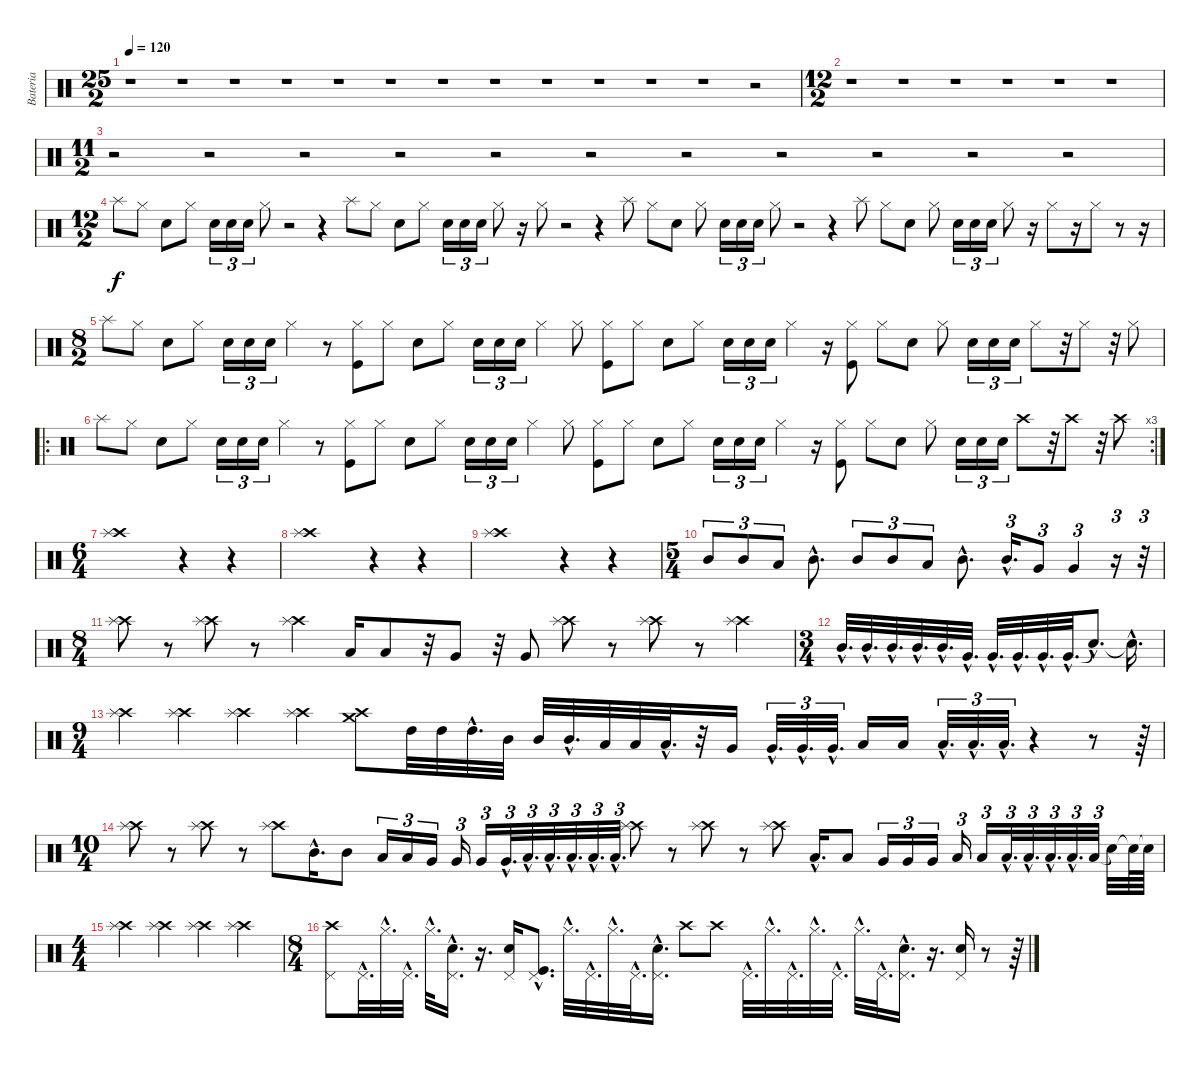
\track ("Bateria" "Bateria") {instrument percussion}
\staff {score}
\articulation defaults
\ts (25 2)
\tempo 120
\clef neutral
\ks c
r.1{dy f} r.1 r.1 r.1 r.1 r.1 r.1 r.1 r.1 r.1 r.1 r.1 r.2 |
\ts (12 2)
r.1 r.1 r.1 r.1 r.1 r.1 |
\ts (11 2)
r.2 r.2 r.2 r.2 r.2 r.2 r.2 r.2 r.2 r.2 r.2 |
\ts (12 2)
"Splash (hit)".8 "Hi-Hat (closed)".8 "Electric Snare (hit)".8 "Hi-Hat (closed)".8 "Electric Snare (hit)".16{tu (3 2)} "Electric Snare (hit)".16{tu (3 2)} "Electric Snare (hit)".16{tu (3 2)} "Hi-Hat (closed)".8 r.2 r.4 "Splash (hit)".8 "Hi-Hat (closed)".8 "Electric Snare (hit)".8 "Hi-Hat (closed)".8 "Electric Snare (hit)".16{tu (3 2)} "Electric Snare (hit)".16{tu (3 2)} "Electric Snare (hit)".16{tu (3 2)} "Hi-Hat (closed)".8 r.16 "Hi-Hat (closed)".8 r.2 r.4 "Splash (hit)".8 "Hi-Hat (closed)".8 "Electric Snare (hit)".8 "Hi-Hat (closed)".8 "Electric Snare (hit)".16{tu (3 2)} "Electric Snare (hit)".16{tu (3 2)} "Electric Snare (hit)".16{tu (3 2)} "Hi-Hat (closed)".8 r.2 r.4 "Splash (hit)".8 "Hi-Hat (closed)".8 "Electric Snare (hit)".8 "Hi-Hat (closed)".8 "Electric Snare (hit)".16{tu (3 2)} "Electric Snare (hit)".16{tu (3 2)} "Electric Snare (hit)".16{tu (3 2)} "Hi-Hat (closed)".8 r.16 "Hi-Hat (closed)".8 r.16 "Hi-Hat (closed)".8 r.8 r.16 |
\ts (8 2)
"Splash (hit)".8 "Hi-Hat (closed)".8 "Electric Snare (hit)".8 "Hi-Hat (closed)".8 "Electric Snare (hit)".16{tu (3 2)} "Electric Snare (hit)".16{tu (3 2)} "Electric Snare (hit)".16{tu (3 2)} "Hi-Hat (closed)".4 r.8 ("Kick (hit)" "Hi-Hat (closed)").8 "Hi-Hat (closed)".8 "Electric Snare (hit)".8 "Hi-Hat (closed)".8 "Electric Snare (hit)".16{tu (3 2)} "Electric Snare (hit)".16{tu (3 2)} "Electric Snare (hit)".16{tu (3 2)} "Hi-Hat (closed)".4 "Hi-Hat (closed)".8 ("Kick (hit)" "Hi-Hat (closed)").8 "Hi-Hat (closed)".8 "Electric Snare (hit)".8 "Hi-Hat (closed)".8 "Electric Snare (hit)".16{tu (3 2)} "Electric Snare (hit)".16{tu (3 2)} "Electric Snare (hit)".16{tu (3 2)} "Hi-Hat (closed)".4 r.16 ("Kick (hit)" "Hi-Hat (closed)").8 "Hi-Hat (closed)".8 "Electric Snare (hit)".8 "Hi-Hat (closed)".8 "Electric Snare (hit)".16{tu (3 2)} "Electric Snare (hit)".16{tu (3 2)} "Electric Snare (hit)".16{tu (3 2)} "Hi-Hat (closed)".8 r.32 "Hi-Hat (closed)".8 r.32 "Hi-Hat (closed)".8 |
\ro
\rc 3 "Splash (hit)".8 "Hi-Hat (closed)".8 "Electric Snare (hit)".8 "Hi-Hat (closed)".8 "Electric Snare (hit)".16{tu (3 2)} "Electric Snare (hit)".16{tu (3 2)} "Electric Snare (hit)".16{tu (3 2)} "Hi-Hat (closed)".4
r.8 ("Kick (hit)" "Hi-Hat (closed)").8 "Hi-Hat (closed)".8 "Electric Snare (hit)".8 "Hi-Hat (closed)".8 "Electric Snare (hit)".16{tu (3 2)} "Electric Snare (hit)".16{tu (3 2)} "Electric Snare (hit)".16{tu (3 2)} "Hi-Hat (closed)".4 "Hi-Hat (closed)".8 ("Kick (hit)" "Hi-Hat (closed)").8 "Hi-Hat (closed)".8 "Electric Snare (hit)".8 "Hi-Hat (closed)".8 "Electric Snare (hit)".16{tu (3 2)} "Electric Snare (hit)".16{tu (3 2)} "Electric Snare (hit)".16{tu (3 2)} "Hi-Hat (closed)".4 r.16 ("Kick (hit)" "Hi-Hat (closed)").8 "Hi-Hat (closed)".8 "Electric Snare (hit)".8 "Hi-Hat (closed)".8 "Electric Snare (hit)".16{tu (3 2)} "Electric Snare (hit)".16{tu (3 2)} "Electric Snare (hit)".16{tu (3 2)} "Crash high (hit)".8 r.32 "Crash high (hit)".8 r.32 "Crash high (hit)".8 |
\ts (6 4)
("Crash high (hit)" "Splash (hit)").1 r.4 r.4 |
("Crash high (hit)" "Splash (hit)").1 r.4 r.4 |
("Crash high (hit)" "Splash (hit)").1 r.4 r.4 |
\ts (5 4)
"Mid Tom (hit)".8{tu (3 2)} "Mid Tom (hit)".8{tu (3 2)} "Low Tom (hit)".8{tu (3 2)} "Mid Tom (hit)"{hac}.8{d} "Mid Tom (hit)".8{tu (3 2)} "Mid Tom (hit)".8{tu (3 2)} "Low Tom (hit)".8{tu (3 2)} "Mid Tom (hit)"{hac}.8{d} "Mid Tom (hit)"{hac}.16{d tu (3 2)} "Very Low Tom (hit)".8{tu (3 2)} "Very Low Tom (hit)".4{tu (3 2)} r.16{tu (3 2)} r.32{tu (3 2)} |
\ts (8 4)
("Crash high (hit)" "Splash (hit)").8 r.8 ("Crash high (hit)" "Splash (hit)").8 r.8 ("Crash high (hit)" "Splash (hit)").4 "Low Tom (hit)".16 "Low Tom (hit)".8 r.32 "Very Low Tom (hit)".8 r.32 "Very Low Tom (hit)".8 ("Crash high (hit)" "Splash (hit)").8 r.8 ("Crash high (hit)" "Splash (hit)").8 r.8 ("Crash high (hit)" "Splash (hit)").4 |
\ts (3 4)
"Mid Tom (hit)"{hac}.32{d} "Mid Tom (hit)"{hac}.32{d} "Mid Tom (hit)"{hac}.32{d} "Mid Tom (hit)"{hac}.32{d} "Mid Tom (hit)"{hac}.32{d} "Very Low Tom (hit)"{hac}.32{d} "Very Low Tom (hit)"{hac}.32{d} "Very Low Tom (hit)"{hac}.32{d} "Very Low Tom (hit)"{hac}.32{d} "Very Low Tom (hit)"{hac}.32{d} "Snare (hit)"{hac t}.8{d} "Snare (hit)"{hac t}.16{d} |
\ts (9 4)
("Crash high (hit)" "Splash (hit)").4 ("Crash high (hit)" "Splash (hit)").4 ("Crash high (hit)" "Splash (hit)").4 ("Crash high (hit)" "Splash (hit)").4 ("Crash high (hit)" "Crash medium (hit)").8 "High Tom (hit)".32 "High Tom (hit)".32 "High Tom (hit)"{hac}.32{d} "Mid Tom (hit)".32 "Mid Tom (hit)".32 "Mid Tom (hit)"{hac}.32{d} "Low Tom (hit)".32 "Low Tom (hit)".32 "Low Tom (hit)"{hac}.32{d} r.32 "Very Low Tom (hit)".16 "Very Low Tom (hit)"{hac}.32{d tu (3 2)} "Very Low Tom (hit)"{hac}.32{d tu (3 2)} "Very Low Tom (hit)"{hac}.32{d tu (3 2)} "Low Floor Tom (hit)".16 "Low Floor Tom (hit)".16 "Low Floor Tom (hit)"{hac}.32{d tu (3 2)} "Low Floor Tom (hit)"{hac}.32{d tu (3 2)} "Low Floor Tom (hit)"{hac}.32{d tu (3 2)} r.4 r.8 r.64 |
\ts (10 4)
("Crash high (hit)" "Splash (hit)").8 r.8 ("Crash high (hit)" "Splash (hit)").8 r.8 ("Crash high (hit)" "Splash (hit)").8 "Mid Tom (hit)"{hac}.16{d} "Mid Tom (hit)".8 "Low Tom (hit)".16{tu (3 2)} "Low Tom (hit)".16{tu (3 2)} "Very Low Tom (hit)".16{tu (3 2)} "Very Low Tom (hit)".16{tu (3 2)} "Very Low Tom (hit)".16{tu (3 2)} "Very Low Tom (hit)"{hac}.32{d tu (3 2)} "Low Floor Tom (hit)"{hac}.32{d tu (3 2)} "Low Floor Tom (hit)"{hac}.32{d tu (3 2)} "Low Floor Tom (hit)"{hac}.32{d tu (3 2)} "Low Floor Tom (hit)"{hac}.32{d tu (3 2)} "Low Floor Tom (hit)"{hac}.32{d tu (3 2)} ("Crash high (hit)" "Splash (hit)").8 r.8 ("Crash high (hit)" "Splash (hit)").8 r.8 ("Crash high (hit)" "Splash (hit)").8 "Low Tom (hit)"{hac}.16{d} "Low Tom (hit)".8 "Very Low Tom (hit)".16{tu (3 2)} "Very Low Tom (hit)".16{tu (3 2)} "Very Low Tom (hit)".16{tu (3 2)} "Low Floor Tom (hit)".16{tu (3 2)} "Low Floor Tom (hit)".16{tu (3 2)} "Low Floor Tom (hit)"{hac}.32{d tu (3 2)} "Low Floor Tom (hit)"{hac}.32{d tu (3 2)} "Low Floor Tom (hit)"{hac}.32{d tu (3 2)} "Low Floor Tom (hit)"{hac}.32{d tu (3 2)} "Low Floor Tom (hit)".32{tu (3 2)} "Snare (hit)"{t}.32 "Snare (hit)"{t}.64 "Snare (hit)"{t}.64 |
\ts (4 4)
("Crash high (hit)" "Splash (hit)").4 ("Crash high (hit)" "Splash (hit)").4 ("Crash high (hit)" "Splash (hit)").4 ("Crash high (hit)" "Splash (hit)").4 |
\ts (8 4)
("Crash high (hit)" "Pedal Hi-Hat (hit)").8 "Pedal Hi-Hat (hit)"{hac}.32{d} "Hi-Hat (closed)"{hac}.32{d} "Pedal Hi-Hat (hit)"{hac}.32{d} "Hi-Hat (closed)"{hac}.32{d} ("Electric Snare (hit)"{hac} "Pedal Hi-Hat (hit)"{hac}).16{d} r.16{d} ("Electric Snare (hit)" "Pedal Hi-Hat (hit)").16 ("Pedal Hi-Hat (hit)"{hac} "Kick (hit)"{hac}).8{d} "Hi-Hat (closed)"{hac}.32{d} "Pedal Hi-Hat (hit)"{hac}.32{d} "Hi-Hat (closed)"{hac}.32{d} "Pedal Hi-Hat (hit)"{hac}.32{d} ("Electric Snare (hit)"{hac} "Pedal Hi-Hat (hit)"{hac}).16{d} "Crash high (hit)".8 "Crash high (hit)".8 "Pedal Hi-Hat (hit)"{hac}.32{d} "Hi-Hat (closed)"{hac}.32{d} "Pedal Hi-Hat (hit)"{hac}.32{d} "Hi-Hat (closed)"{hac}.32{d} "Pedal Hi-Hat (hit)"{hac}.32{d} "Hi-Hat (closed)"{hac}.32{d} "Pedal Hi-Hat (hit)"{hac}.32{d} ("Electric Snare (hit)"{hac} "Pedal Hi-Hat (hit)"{hac}).16{d} r.16{d} ("Electric Snare (hit)" "Pedal Hi-Hat (hit)").16 r.8 r.64
